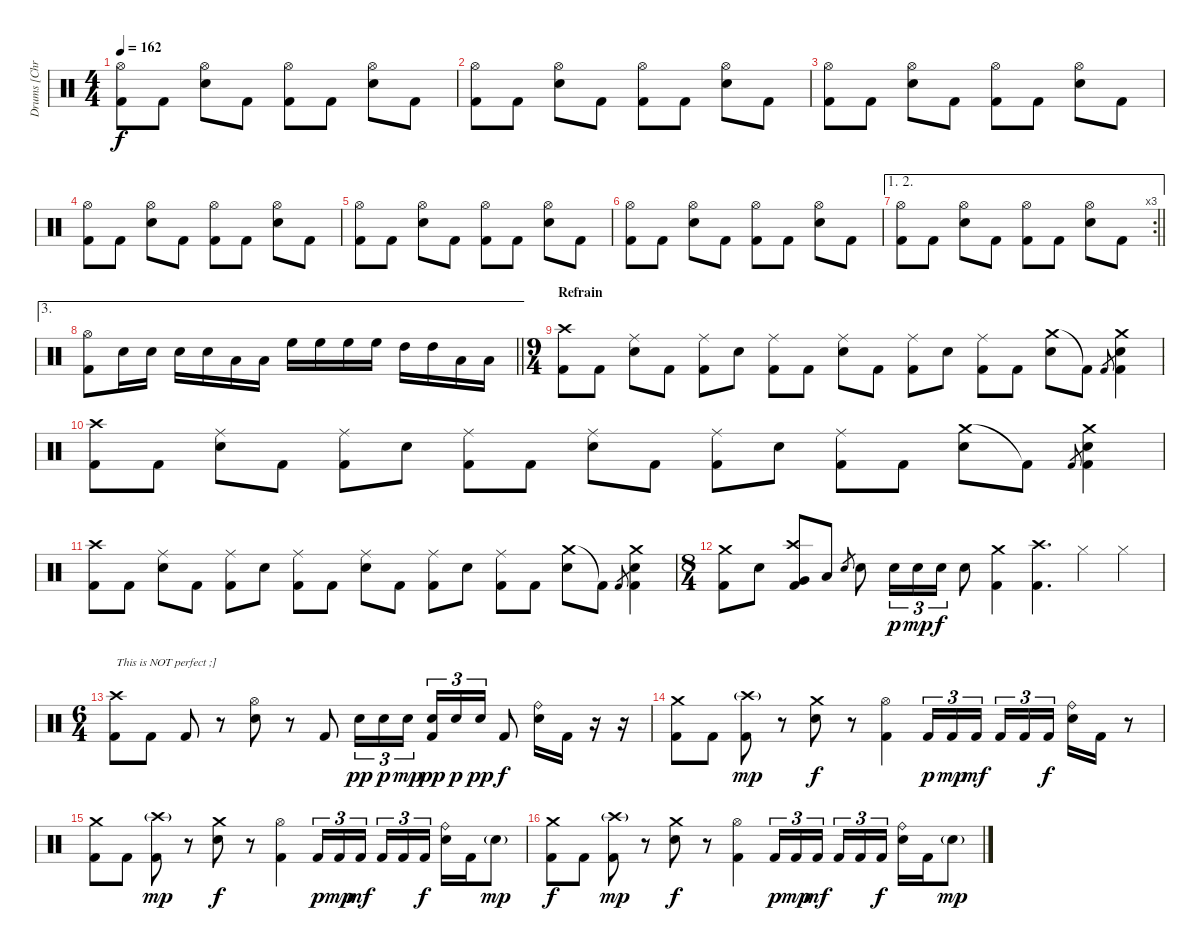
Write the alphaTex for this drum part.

\track ("Drums [Chris Maitland]" "Drums [Chr") {instrument percussion}
\staff {score}
\articulation defaults
\ts (4 4)
\tempo 162
\clef neutral
\ks c
("Hi-Hat (open)" "Kick (hit) 2").8{dy f} "Kick (hit) 2".8 ("Hi-Hat (open)" "Electric Snare (hit)").8 "Kick (hit) 2".8 ("Hi-Hat (open)" "Kick (hit) 2").8 "Kick (hit) 2".8 ("Hi-Hat (open)" "Electric Snare (hit)").8 "Kick (hit) 2".8 |
("Hi-Hat (open)" "Kick (hit) 2").8 "Kick (hit) 2".8 ("Hi-Hat (open)" "Electric Snare (hit)").8 "Kick (hit) 2".8 ("Hi-Hat (open)" "Kick (hit) 2").8 "Kick (hit) 2".8 ("Hi-Hat (open)" "Electric Snare (hit)").8 "Kick (hit) 2".8 |
("Hi-Hat (open)" "Kick (hit) 2").8 "Kick (hit) 2".8 ("Hi-Hat (open)" "Electric Snare (hit)").8 "Kick (hit) 2".8 ("Hi-Hat (open)" "Kick (hit) 2").8 "Kick (hit) 2".8 ("Hi-Hat (open)" "Electric Snare (hit)").8 "Kick (hit) 2".8 |
("Hi-Hat (open)" "Kick (hit) 2").8 "Kick (hit) 2".8 ("Hi-Hat (open)" "Electric Snare (hit)").8 "Kick (hit) 2".8 ("Hi-Hat (open)" "Kick (hit) 2").8 "Kick (hit) 2".8 ("Hi-Hat (open)" "Electric Snare (hit)").8 "Kick (hit) 2".8 |
("Hi-Hat (open)" "Kick (hit) 2").8 "Kick (hit) 2".8 ("Hi-Hat (open)" "Electric Snare (hit)").8 "Kick (hit) 2".8 ("Hi-Hat (open)" "Kick (hit) 2").8 "Kick (hit) 2".8 ("Hi-Hat (open)" "Electric Snare (hit)").8 "Kick (hit) 2".8 |
("Hi-Hat (open)" "Kick (hit) 2").8 "Kick (hit) 2".8 ("Hi-Hat (open)" "Electric Snare (hit)").8 "Kick (hit) 2".8 ("Hi-Hat (open)" "Kick (hit) 2").8 "Kick (hit) 2".8 ("Hi-Hat (open)" "Electric Snare (hit)").8 "Kick (hit) 2".8 |
\ae (1 2)
\rc 3
\barLineRight lightlight
("Hi-Hat (open)" "Kick (hit) 2").8 "Kick (hit) 2".8 ("Hi-Hat (open)" "Electric Snare (hit)").8 "Kick (hit) 2".8 ("Hi-Hat (open)" "Kick (hit) 2").8 "Kick (hit) 2".8 ("Hi-Hat (open)" "Electric Snare (hit)").8 "Kick (hit) 2".8 |
\ae 3
\barLineRight lightlight
("Hi-Hat (open)" "Kick (hit) 2").8 "Electric Snare (hit)".16 "Electric Snare (hit)".16 "Electric Snare (hit)".16 "Electric Snare (hit)".16 "Low Tom (hit)".16 "Low Tom (hit)".16 "High Floor Tom (hit)".16 "High Floor Tom (hit)".16 "High Floor Tom (hit)".16 "High Floor Tom (hit)".16 "High Tom (hit)".16 "High Tom (hit)".16 "Low Tom (hit)".16 "Low Tom (hit)".16 |
\ts (9 4)
\section ("" "Refrain")
("Crash high (hit)" "Kick (hit) 2").8 "Kick (hit) 2".8 ("Ride (middle)" "Electric Snare (hit)").8 "Kick (hit) 2".8 ("Ride (middle)" "Kick (hit) 2").8 "Electric Snare (hit)".8 ("Ride (middle)" "Kick (hit) 2").8 "Kick (hit) 2".8 ("Ride (middle)" "Electric Snare (hit)").8 "Kick (hit) 2".8 ("Ride (middle)" "Kick (hit) 2").8 "Electric Snare (hit)".8 ("Ride (middle)" "Kick (hit) 2").8 "Kick (hit) 2".8 ("Crash medium (hit)" "Electric Snare (hit)").8 "Kick (hit) 2"{t}.8 "Kick (hit) 2".8{gr} ("Crash medium (hit)" "Electric Snare (hit)" "Kick (hit) 2").4 |
("Crash high (hit)" "Kick (hit) 2").8 "Kick (hit) 2".8 ("Ride (middle)" "Electric Snare (hit)").8 "Kick (hit) 2".8 ("Ride (middle)" "Kick (hit) 2").8 "Electric Snare (hit)".8 ("Ride (middle)" "Kick (hit) 2").8 "Kick (hit) 2".8 ("Ride (middle)" "Electric Snare (hit)").8 "Kick (hit) 2".8 ("Ride (middle)" "Kick (hit) 2").8 "Electric Snare (hit)".8 ("Ride (middle)" "Kick (hit) 2").8 "Kick (hit) 2".8 ("Crash medium (hit)" "Electric Snare (hit)").8 "Kick (hit) 2"{t}.8 "Kick (hit) 2".8{gr} ("Crash medium (hit)" "Electric Snare (hit)" "Kick (hit) 2").4 |
("Crash high (hit)" "Kick (hit) 2").8 "Kick (hit) 2".8 ("Ride (middle)" "Electric Snare (hit)").8 "Kick (hit) 2".8 ("Ride (middle)" "Kick (hit) 2").8 "Electric Snare (hit)".8 ("Ride (middle)" "Kick (hit) 2").8 "Kick (hit) 2".8 ("Ride (middle)" "Electric Snare (hit)").8 "Kick (hit) 2".8 ("Ride (middle)" "Kick (hit) 2").8 "Electric Snare (hit)".8 ("Ride (middle)" "Kick (hit) 2").8 "Kick (hit) 2".8 ("Crash medium (hit)" "Electric Snare (hit)").8 "Kick (hit) 2"{t}.8 "Kick (hit) 2".8{gr} ("Crash medium (hit)" "Electric Snare (hit)" "Kick (hit) 2").4 |
\ts (8 4)
("Crash medium (hit)" "Kick (hit) 2").8 "Electric Snare (hit)".8 ("Crash high (hit)" "Very Low Tom (hit)" "Kick (hit) 2").8 "Low Floor Tom (hit)".8 "Electric Snare (hit)".8{gr} "Electric Snare (hit)".8 "Electric Snare (hit)".16{tu (3 2) dy p} "Electric Snare (hit)".16{tu (3 2) dy mp} "Electric Snare (hit)".16{tu (3 2) dy f} "Electric Snare (hit)".8 ("Crash medium (hit)" "Kick (hit) 2").4 ("Crash high (hit)" "Kick (hit) 2").4{d} "Hi-Hat (closed)".4 "Hi-Hat (closed)".4 |
\ts (6 4)
("Crash high (hit)" "Kick (hit) 2").8{txt "This is NOT perfect ;]"} "Kick (hit) 2".8 "Kick (hit) 2".8 r.8 ("Hi-Hat (open)" "Electric Snare (hit)").8 r.8 "Kick (hit) 2".8 "Electric Snare (hit)".16{tu (3 2) dy pp} "Electric Snare (hit)".16{tu (3 2) dy p} "Electric Snare (hit)".16{tu (3 2) dy mp beam splitsecondary} ("Electric Snare (hit)" "Kick (hit) 2").16{tu (3 2) dy pp} "Electric Snare (hit)".16{tu (3 2) dy p} "Electric Snare (hit)".16{tu (3 2) dy pp} "Kick (hit) 2".8{dy f} ("Ride (bell)" "Electric Snare (hit)").16 "Kick (hit) 2".16 r.16 r.16 |
("Crash medium (hit)" "Kick (hit) 2").8 "Kick (hit) 2".8 ("Crash high (hit)"{g} "Kick (hit) 2").8{dy mp} r.8 ("Crash medium (hit)" "Electric Snare (hit)").8{dy f} r.8 ("Hi-Hat (open)" "Kick (hit) 2").4 "Kick (hit) 2".16{tu (3 2) dy p} "Kick (hit) 2".16{tu (3 2) dy mp} "Kick (hit) 2".16{tu (3 2) dy mf beam splitsecondary} "Kick (hit) 2".16{tu (3 2)} "Kick (hit) 2".16{tu (3 2)} "Kick (hit) 2".16{tu (3 2) dy f beam splitsecondary} ("Ride (bell)" "Electric Snare (hit)").16 "Kick (hit) 2".16 r.8 |
("Crash medium (hit)" "Kick (hit) 2").8 "Kick (hit) 2".8 ("Crash high (hit)"{g} "Kick (hit) 2").8{dy mp} r.8 ("Crash medium (hit)" "Electric Snare (hit)").8{dy f} r.8 ("Hi-Hat (open)" "Kick (hit) 2").4 "Kick (hit) 2".16{tu (3 2) dy p} "Kick (hit) 2".16{tu (3 2) dy mp} "Kick (hit) 2".16{tu (3 2) dy mf beam splitsecondary} "Kick (hit) 2".16{tu (3 2)} "Kick (hit) 2".16{tu (3 2)} "Kick (hit) 2".16{tu (3 2) dy f beam splitsecondary} ("Ride (bell)" "Electric Snare (hit)").16 "Kick (hit) 2".16 "Electric Snare (hit)"{g}.8{dy mp} |
("Crash medium (hit)" "Kick (hit) 2").8{dy f} "Kick (hit) 2".8 ("Crash high (hit)"{g} "Kick (hit) 2").8{dy mp} r.8 ("Crash medium (hit)" "Electric Snare (hit)").8{dy f} r.8 ("Hi-Hat (open)" "Kick (hit) 2").4 "Kick (hit) 2".16{tu (3 2) dy p} "Kick (hit) 2".16{tu (3 2) dy mp} "Kick (hit) 2".16{tu (3 2) dy mf beam splitsecondary} "Kick (hit) 2".16{tu (3 2)} "Kick (hit) 2".16{tu (3 2)} "Kick (hit) 2".16{tu (3 2) dy f beam splitsecondary} ("Ride (bell)" "Electric Snare (hit)").16 "Kick (hit) 2".16 "Electric Snare (hit)"{g}.8{dy mp}
